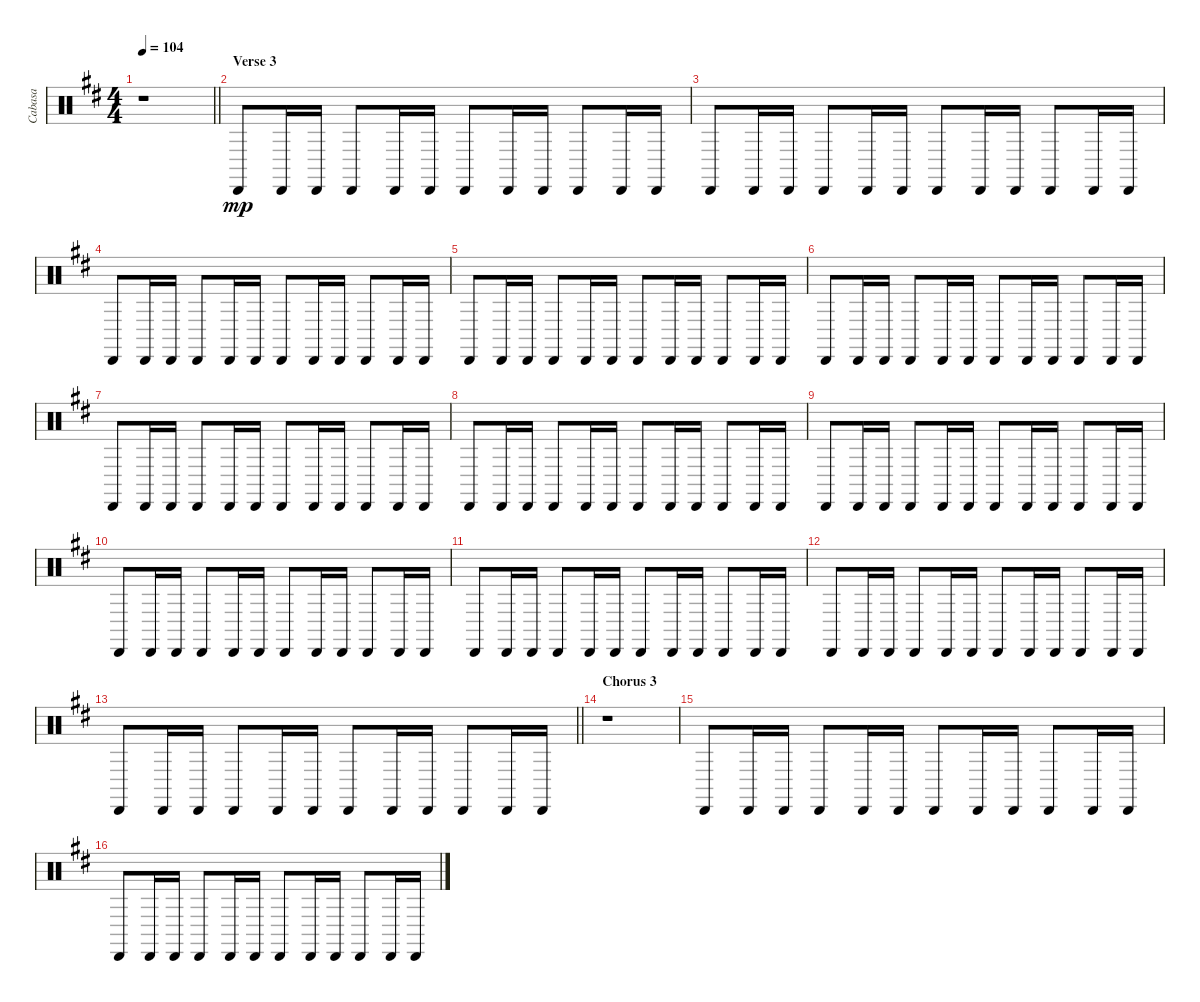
\track ("Cabasa" "Cabasa") {instrument percussion}
\staff {score}
\articulation defaults
\ts (4 4)
\tempo 104
\clef neutral
\barLineRight lightlight
\ks bminor
r.1{dy mp} |
\section ("" "Verse 3")
"Cabasa (hit)".8 "Cabasa (hit)".16 "Cabasa (hit)".16 "Cabasa (hit)".8 "Cabasa (hit)".16 "Cabasa (hit)".16 "Cabasa (hit)".8 "Cabasa (hit)".16 "Cabasa (hit)".16 "Cabasa (hit)".8 "Cabasa (hit)".16 "Cabasa (hit)".16 |
"Cabasa (hit)".8 "Cabasa (hit)".16 "Cabasa (hit)".16 "Cabasa (hit)".8 "Cabasa (hit)".16 "Cabasa (hit)".16 "Cabasa (hit)".8 "Cabasa (hit)".16 "Cabasa (hit)".16 "Cabasa (hit)".8 "Cabasa (hit)".16 "Cabasa (hit)".16 |
"Cabasa (hit)".8 "Cabasa (hit)".16 "Cabasa (hit)".16 "Cabasa (hit)".8 "Cabasa (hit)".16 "Cabasa (hit)".16 "Cabasa (hit)".8 "Cabasa (hit)".16 "Cabasa (hit)".16 "Cabasa (hit)".8 "Cabasa (hit)".16 "Cabasa (hit)".16 |
"Cabasa (hit)".8 "Cabasa (hit)".16 "Cabasa (hit)".16 "Cabasa (hit)".8 "Cabasa (hit)".16 "Cabasa (hit)".16 "Cabasa (hit)".8 "Cabasa (hit)".16 "Cabasa (hit)".16 "Cabasa (hit)".8 "Cabasa (hit)".16 "Cabasa (hit)".16 |
"Cabasa (hit)".8 "Cabasa (hit)".16 "Cabasa (hit)".16 "Cabasa (hit)".8 "Cabasa (hit)".16 "Cabasa (hit)".16 "Cabasa (hit)".8 "Cabasa (hit)".16 "Cabasa (hit)".16 "Cabasa (hit)".8 "Cabasa (hit)".16 "Cabasa (hit)".16 |
"Cabasa (hit)".8 "Cabasa (hit)".16 "Cabasa (hit)".16 "Cabasa (hit)".8 "Cabasa (hit)".16 "Cabasa (hit)".16 "Cabasa (hit)".8 "Cabasa (hit)".16 "Cabasa (hit)".16 "Cabasa (hit)".8 "Cabasa (hit)".16 "Cabasa (hit)".16 |
"Cabasa (hit)".8 "Cabasa (hit)".16 "Cabasa (hit)".16 "Cabasa (hit)".8 "Cabasa (hit)".16 "Cabasa (hit)".16 "Cabasa (hit)".8 "Cabasa (hit)".16 "Cabasa (hit)".16 "Cabasa (hit)".8 "Cabasa (hit)".16 "Cabasa (hit)".16 |
"Cabasa (hit)".8 "Cabasa (hit)".16 "Cabasa (hit)".16 "Cabasa (hit)".8 "Cabasa (hit)".16 "Cabasa (hit)".16 "Cabasa (hit)".8 "Cabasa (hit)".16 "Cabasa (hit)".16 "Cabasa (hit)".8 "Cabasa (hit)".16 "Cabasa (hit)".16 |
"Cabasa (hit)".8 "Cabasa (hit)".16 "Cabasa (hit)".16 "Cabasa (hit)".8 "Cabasa (hit)".16 "Cabasa (hit)".16 "Cabasa (hit)".8 "Cabasa (hit)".16 "Cabasa (hit)".16 "Cabasa (hit)".8 "Cabasa (hit)".16 "Cabasa (hit)".16 |
"Cabasa (hit)".8 "Cabasa (hit)".16 "Cabasa (hit)".16 "Cabasa (hit)".8 "Cabasa (hit)".16 "Cabasa (hit)".16 "Cabasa (hit)".8 "Cabasa (hit)".16 "Cabasa (hit)".16 "Cabasa (hit)".8 "Cabasa (hit)".16 "Cabasa (hit)".16 |
"Cabasa (hit)".8 "Cabasa (hit)".16 "Cabasa (hit)".16 "Cabasa (hit)".8 "Cabasa (hit)".16 "Cabasa (hit)".16 "Cabasa (hit)".8 "Cabasa (hit)".16 "Cabasa (hit)".16 "Cabasa (hit)".8 "Cabasa (hit)".16 "Cabasa (hit)".16 |
\barLineRight lightlight "Cabasa (hit)".8 "Cabasa (hit)".16 "Cabasa (hit)".16 "Cabasa (hit)".8 "Cabasa (hit)".16 "Cabasa (hit)".16 "Cabasa (hit)".8 "Cabasa (hit)".16 "Cabasa (hit)".16 "Cabasa (hit)".8 "Cabasa (hit)".16 "Cabasa (hit)".16
|
\section ("" "Chorus 3")
r.1 |
"Cabasa (hit)".8 "Cabasa (hit)".16 "Cabasa (hit)".16 "Cabasa (hit)".8 "Cabasa (hit)".16 "Cabasa (hit)".16 "Cabasa (hit)".8 "Cabasa (hit)".16 "Cabasa (hit)".16 "Cabasa (hit)".8 "Cabasa (hit)".16 "Cabasa (hit)".16 |
"Cabasa (hit)".8 "Cabasa (hit)".16 "Cabasa (hit)".16 "Cabasa (hit)".8 "Cabasa (hit)".16 "Cabasa (hit)".16 "Cabasa (hit)".8 "Cabasa (hit)".16 "Cabasa (hit)".16 "Cabasa (hit)".8 "Cabasa (hit)".16 "Cabasa (hit)".16
